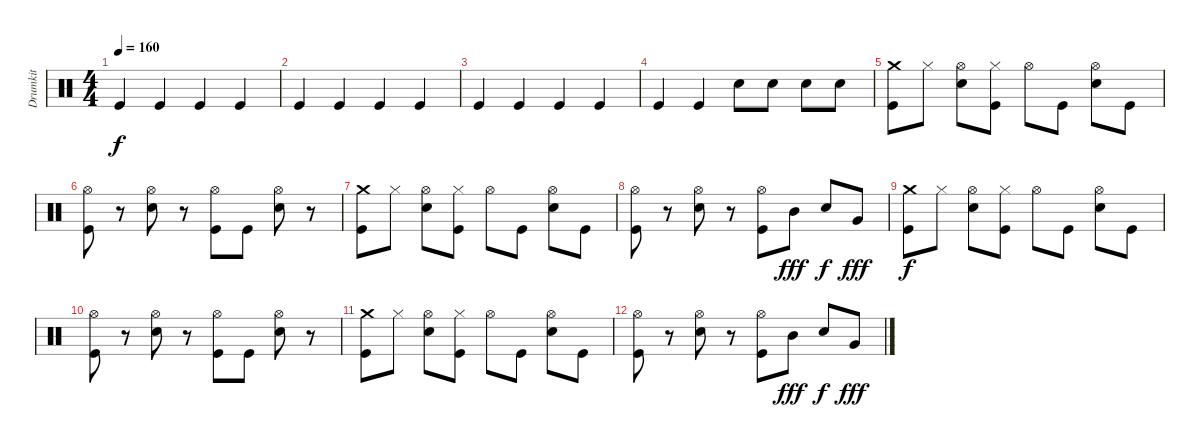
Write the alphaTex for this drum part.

\track ("Drumkit" "Drumkit") {instrument percussion}
\staff {score}
\articulation defaults
\ts (4 4)
\tempo 160
\clef neutral
\ks c "Kick (hit)".4{dy f} "Kick (hit)".4 "Kick (hit)".4 "Kick (hit)".4
|
"Kick (hit)".4 "Kick (hit)".4 "Kick (hit)".4 "Kick (hit)".4 |
"Kick (hit)".4 "Kick (hit)".4 "Kick (hit)".4 "Kick (hit)".4 |
"Kick (hit)".4 "Kick (hit)".4 "Snare (hit) 2".8 "Snare (hit) 2".8 "Snare (hit) 2".8 "Snare (hit) 2".8 |
("Kick (hit)" "Crash medium (hit)").8 "Hi-Hat (closed)".8 ("Snare (hit) 2" "Hi-Hat (open)").8 ("Kick (hit)" "Hi-Hat (closed)").8 "Hi-Hat (open)".8 "Kick (hit)".8 ("Snare (hit) 2" "Hi-Hat (open)").8 "Kick (hit)".8 |
("Kick (hit)" "Hi-Hat (open)").8 r.8 ("Snare (hit) 2" "Hi-Hat (open)").8 r.8 ("Kick (hit)" "Hi-Hat (open)").8 "Kick (hit)".8 ("Snare (hit) 2" "Hi-Hat (open)").8 r.8 |
("Kick (hit)" "Crash medium (hit)").8 "Hi-Hat (closed)".8 ("Snare (hit) 2" "Hi-Hat (open)").8 ("Kick (hit)" "Hi-Hat (closed)").8 "Hi-Hat (open)".8 "Kick (hit)".8 ("Snare (hit) 2" "Hi-Hat (open)").8 "Kick (hit)".8 |
("Kick (hit)" "Hi-Hat (open)").8 r.8 ("Snare (hit) 2" "Hi-Hat (open)").8 r.8 ("Kick (hit)" "Hi-Hat (open)").8 "Mid Tom (hit)".8{dy fff} "Snare (hit) 2".8{dy f} "Very Low Tom (hit)".8{dy fff} |
("Kick (hit)" "Crash medium (hit)").8{dy f} "Hi-Hat (closed)".8 ("Snare (hit) 2" "Hi-Hat (open)").8 ("Kick (hit)" "Hi-Hat (closed)").8 "Hi-Hat (open)".8 "Kick (hit)".8 ("Snare (hit) 2" "Hi-Hat (open)").8 "Kick (hit)".8 |
("Kick (hit)" "Hi-Hat (open)").8 r.8 ("Snare (hit) 2" "Hi-Hat (open)").8 r.8 ("Kick (hit)" "Hi-Hat (open)").8 "Kick (hit)".8 ("Snare (hit) 2" "Hi-Hat (open)").8 r.8 |
("Kick (hit)" "Crash medium (hit)").8 "Hi-Hat (closed)".8 ("Snare (hit) 2" "Hi-Hat (open)").8 ("Kick (hit)" "Hi-Hat (closed)").8 "Hi-Hat (open)".8 "Kick (hit)".8 ("Snare (hit) 2" "Hi-Hat (open)").8 "Kick (hit)".8 |
("Kick (hit)" "Hi-Hat (open)").8 r.8 ("Snare (hit) 2" "Hi-Hat (open)").8 r.8 ("Kick (hit)" "Hi-Hat (open)").8 "Mid Tom (hit)".8{dy fff} "Snare (hit) 2".8{dy f} "Very Low Tom (hit)".8{dy fff}
